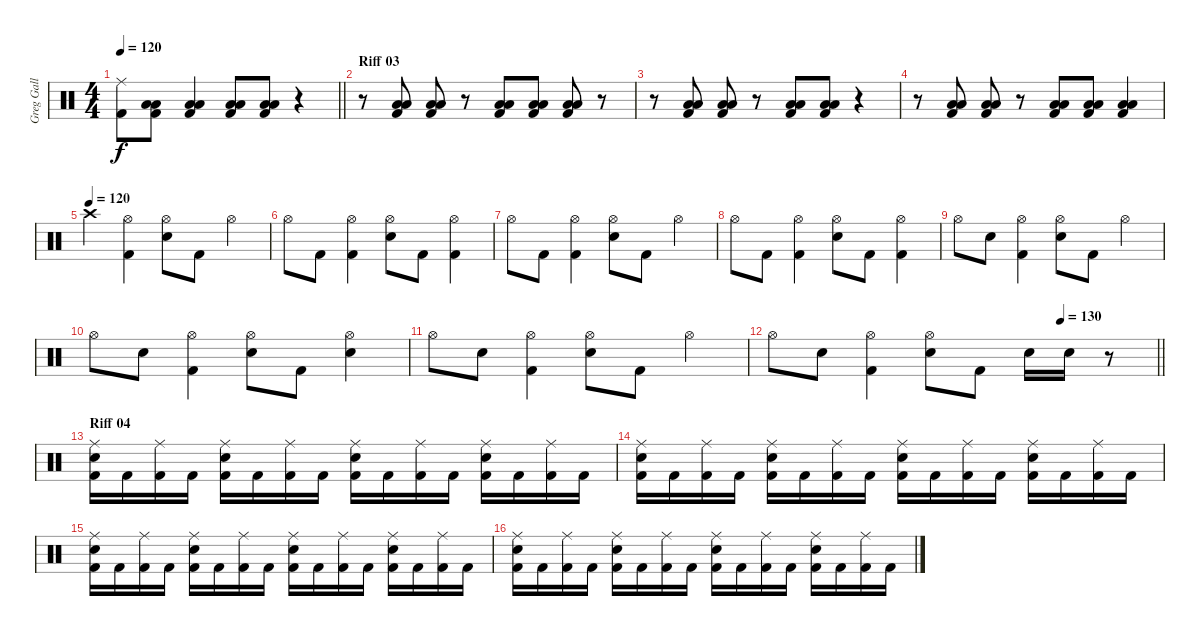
\track ("Greg Gall" "Greg Gall") {instrument percussion}
\staff {score}
\articulation defaults
\ts (4 4)
\tempo 120
\clef neutral
\barLineRight lightlight
\ks c
("Ride (middle)" "Kick (hit) 2").8{dy f} ("Low Floor Tom (hit)" "Low Floor Tom (hit)" "Kick (hit) 2").8 ("Low Floor Tom (hit)" "Low Floor Tom (hit)" "Kick (hit) 2").4 ("Low Floor Tom (hit)" "Low Floor Tom (hit)" "Kick (hit) 2").8 ("Low Floor Tom (hit)" "Low Floor Tom (hit)" "Kick (hit) 2").8 r.4 |
\section ("" "Riff 03")
r.8 ("Low Floor Tom (hit)" "Low Floor Tom (hit)" "Kick (hit) 2").8 ("Low Floor Tom (hit)" "Low Floor Tom (hit)" "Kick (hit) 2").8 r.8 ("Low Floor Tom (hit)" "Low Floor Tom (hit)" "Kick (hit) 2").8 ("Low Floor Tom (hit)" "Low Floor Tom (hit)" "Kick (hit) 2").8 ("Low Floor Tom (hit)" "Low Floor Tom (hit)" "Kick (hit) 2").8 r.8 |
r.8 ("Low Floor Tom (hit)" "Low Floor Tom (hit)" "Kick (hit) 2").8 ("Low Floor Tom (hit)" "Low Floor Tom (hit)" "Kick (hit) 2").8 r.8 ("Low Floor Tom (hit)" "Low Floor Tom (hit)" "Kick (hit) 2").8 ("Low Floor Tom (hit)" "Low Floor Tom (hit)" "Kick (hit) 2").8 r.4 |
r.8 ("Low Floor Tom (hit)" "Low Floor Tom (hit)" "Kick (hit) 2").8 ("Low Floor Tom (hit)" "Low Floor Tom (hit)" "Kick (hit) 2").8 r.8 ("Low Floor Tom (hit)" "Low Floor Tom (hit)" "Kick (hit) 2").8 ("Low Floor Tom (hit)" "Low Floor Tom (hit)" "Kick (hit) 2").8 ("Low Floor Tom (hit)" "Low Floor Tom (hit)" "Kick (hit) 2").4 |
\tempo (120)
"Crash high (hit)".4 ("Hi-Hat (open)" "Kick (hit) 2").4 ("Hi-Hat (open)" "Electric Snare (hit)").8 "Kick (hit) 2".8 "Hi-Hat (open)".4 |
"Hi-Hat (open)".8 "Kick (hit) 2".8 ("Hi-Hat (open)" "Kick (hit) 2").4 ("Hi-Hat (open)" "Electric Snare (hit)").8 "Kick (hit) 2".8 ("Hi-Hat (open)" "Kick (hit) 2").4 |
"Hi-Hat (open)".8 "Kick (hit) 2".8 ("Hi-Hat (open)" "Kick (hit) 2").4 ("Hi-Hat (open)" "Electric Snare (hit)").8 "Kick (hit) 2".8 "Hi-Hat (open)".4 |
"Hi-Hat (open)".8 "Kick (hit) 2".8 ("Hi-Hat (open)" "Kick (hit) 2").4 ("Hi-Hat (open)" "Electric Snare (hit)").8 "Kick (hit) 2".8 ("Hi-Hat (open)" "Kick (hit) 2").4 |
"Hi-Hat (open)".8 "Electric Snare (hit)".8 ("Hi-Hat (open)" "Kick (hit) 2").4 ("Hi-Hat (open)" "Electric Snare (hit)").8 "Kick (hit) 2".8 "Hi-Hat (open)".4 |
"Hi-Hat (open)".8 "Electric Snare (hit)".8 ("Hi-Hat (open)" "Kick (hit) 2").4 ("Hi-Hat (open)" "Electric Snare (hit)").8 "Kick (hit) 2".8 ("Hi-Hat (open)" "Electric Snare (hit)").4 |
"Hi-Hat (open)".8 "Electric Snare (hit)".8 ("Hi-Hat (open)" "Kick (hit) 2").4 ("Hi-Hat (open)" "Electric Snare (hit)").8 "Kick (hit) 2".8 "Hi-Hat (open)".4 |
\tempo (130 0.75)
\barLineRight lightlight "Hi-Hat (open)".8 "Electric Snare (hit)".8
("Hi-Hat (open)" "Kick (hit) 2").4 ("Hi-Hat (open)" "Electric Snare (hit)").8 "Kick (hit) 2".8 "Electric Snare (hit)".16 "Electric Snare (hit)".16 r.8 |
\section ("" "Riff 04")
("Ride (middle)" "Electric Snare (hit)" "Kick (hit) 2").16 "Kick (hit) 2".16 ("Ride (middle)" "Kick (hit) 2").16 "Kick (hit) 2".16 ("Ride (middle)" "Electric Snare (hit)" "Kick (hit) 2").16 "Kick (hit) 2".16 ("Ride (middle)" "Kick (hit) 2").16 "Kick (hit) 2".16 ("Ride (middle)" "Electric Snare (hit)" "Kick (hit) 2").16 "Kick (hit) 2".16 ("Ride (middle)" "Kick (hit) 2").16 "Kick (hit) 2".16 ("Ride (middle)" "Electric Snare (hit)" "Kick (hit) 2").16 "Kick (hit) 2".16 ("Ride (middle)" "Kick (hit) 2").16 "Kick (hit) 2".16 |
("Ride (middle)" "Electric Snare (hit)" "Kick (hit) 2").16 "Kick (hit) 2".16 ("Ride (middle)" "Kick (hit) 2").16 "Kick (hit) 2".16 ("Ride (middle)" "Electric Snare (hit)" "Kick (hit) 2").16 "Kick (hit) 2".16 ("Ride (middle)" "Kick (hit) 2").16 "Kick (hit) 2".16 ("Ride (middle)" "Electric Snare (hit)" "Kick (hit) 2").16 "Kick (hit) 2".16 ("Ride (middle)" "Kick (hit) 2").16 "Kick (hit) 2".16 ("Ride (middle)" "Electric Snare (hit)" "Kick (hit) 2").16 "Kick (hit) 2".16 ("Ride (middle)" "Kick (hit) 2").16 "Kick (hit) 2".16 |
("Ride (middle)" "Electric Snare (hit)" "Kick (hit) 2").16 "Kick (hit) 2".16 ("Ride (middle)" "Kick (hit) 2").16 "Kick (hit) 2".16 ("Ride (middle)" "Electric Snare (hit)" "Kick (hit) 2").16 "Kick (hit) 2".16 ("Ride (middle)" "Kick (hit) 2").16 "Kick (hit) 2".16 ("Ride (middle)" "Electric Snare (hit)" "Kick (hit) 2").16 "Kick (hit) 2".16 ("Ride (middle)" "Kick (hit) 2").16 "Kick (hit) 2".16 ("Ride (middle)" "Electric Snare (hit)" "Kick (hit) 2").16 "Kick (hit) 2".16 ("Ride (middle)" "Kick (hit) 2").16 "Kick (hit) 2".16 |
("Ride (middle)" "Electric Snare (hit)" "Kick (hit) 2").16 "Kick (hit) 2".16 ("Ride (middle)" "Kick (hit) 2").16 "Kick (hit) 2".16 ("Ride (middle)" "Electric Snare (hit)" "Kick (hit) 2").16 "Kick (hit) 2".16 ("Ride (middle)" "Kick (hit) 2").16 "Kick (hit) 2".16 ("Ride (middle)" "Electric Snare (hit)" "Kick (hit) 2").16 "Kick (hit) 2".16 ("Ride (middle)" "Kick (hit) 2").16 "Kick (hit) 2".16 ("Ride (middle)" "Electric Snare (hit)" "Kick (hit) 2").16 "Kick (hit) 2".16 ("Ride (middle)" "Kick (hit) 2").16 "Kick (hit) 2".16
